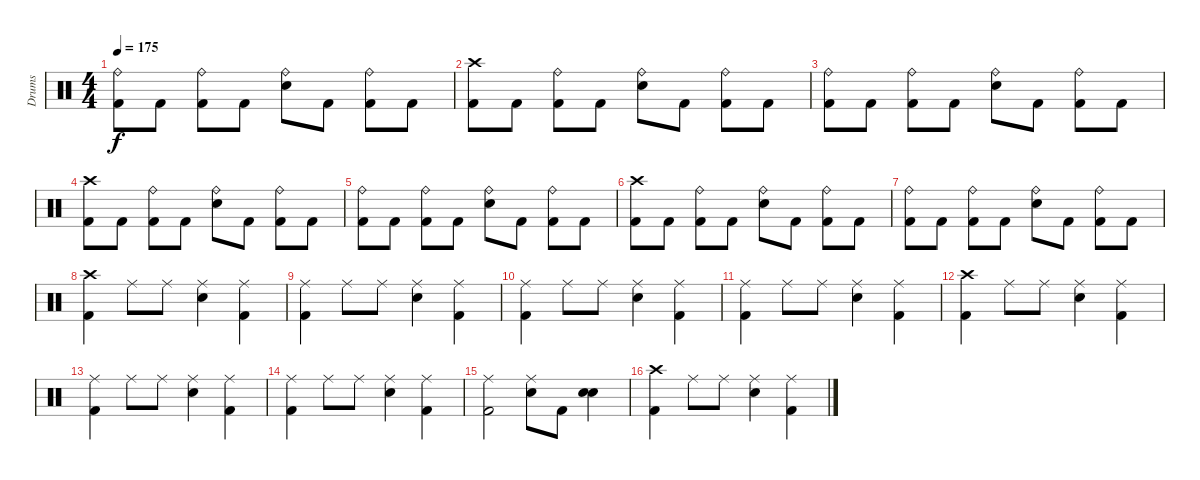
\track ("Drums" "Drums") {instrument percussion}
\staff {score}
\articulation defaults
\ts (4 4)
\tempo 175
\clef neutral
\ks c
("Ride (bell)" "Kick (hit) 2").8{dy f} "Kick (hit) 2".8 ("Ride (bell)" "Kick (hit) 2").8 "Kick (hit) 2".8 ("Ride (bell)" "Snare (hit) 2").8 "Kick (hit) 2".8 ("Ride (bell)" "Kick (hit) 2").8 "Kick (hit) 2".8 |
("Crash high (hit)" "Kick (hit) 2").8 "Kick (hit) 2".8 ("Ride (bell)" "Kick (hit) 2").8 "Kick (hit) 2".8 ("Ride (bell)" "Snare (hit) 2").8 "Kick (hit) 2".8 ("Ride (bell)" "Kick (hit) 2").8 "Kick (hit) 2".8 |
("Ride (bell)" "Kick (hit) 2").8 "Kick (hit) 2".8 ("Ride (bell)" "Kick (hit) 2").8 "Kick (hit) 2".8 ("Ride (bell)" "Snare (hit) 2").8 "Kick (hit) 2".8 ("Ride (bell)" "Kick (hit) 2").8 "Kick (hit) 2".8 |
("Crash high (hit)" "Kick (hit) 2").8 "Kick (hit) 2".8 ("Ride (bell)" "Kick (hit) 2").8 "Kick (hit) 2".8 ("Ride (bell)" "Snare (hit) 2").8 "Kick (hit) 2".8 ("Ride (bell)" "Kick (hit) 2").8 "Kick (hit) 2".8 |
("Ride (bell)" "Kick (hit) 2").8 "Kick (hit) 2".8 ("Ride (bell)" "Kick (hit) 2").8 "Kick (hit) 2".8 ("Ride (bell)" "Snare (hit) 2").8 "Kick (hit) 2".8 ("Ride (bell)" "Kick (hit) 2").8 "Kick (hit) 2".8 |
("Crash high (hit)" "Kick (hit) 2").8 "Kick (hit) 2".8 ("Ride (bell)" "Kick (hit) 2").8 "Kick (hit) 2".8 ("Ride (bell)" "Snare (hit) 2").8 "Kick (hit) 2".8 ("Ride (bell)" "Kick (hit) 2").8 "Kick (hit) 2".8 |
("Ride (bell)" "Kick (hit) 2").8 "Kick (hit) 2".8 ("Ride (bell)" "Kick (hit) 2").8 "Kick (hit) 2".8 ("Ride (bell)" "Snare (hit) 2").8 "Kick (hit) 2".8 ("Ride (bell)" "Kick (hit) 2").8 "Kick (hit) 2".8 |
("Crash high (hit)" "Kick (hit) 2").4 "Ride (middle)".8 "Ride (middle)".8 ("Ride (middle)" "Snare (hit) 2").4 ("Ride (middle)" "Kick (hit) 2").4 |
("Ride (middle)" "Kick (hit) 2").4 "Ride (middle)".8 "Ride (middle)".8 ("Ride (middle)" "Snare (hit) 2").4 ("Ride (middle)" "Kick (hit) 2").4 |
("Ride (middle)" "Kick (hit) 2").4 "Ride (middle)".8 "Ride (middle)".8 ("Ride (middle)" "Snare (hit) 2").4 ("Ride (middle)" "Kick (hit) 2").4 |
("Ride (middle)" "Kick (hit) 2").4 "Ride (middle)".8 "Ride (middle)".8 ("Ride (middle)" "Snare (hit) 2").4 ("Ride (middle)" "Kick (hit) 2").4 |
("Crash high (hit)" "Kick (hit) 2").4 "Ride (middle)".8 "Ride (middle)".8 ("Ride (middle)" "Snare (hit) 2").4 ("Ride (middle)" "Kick (hit) 2").4 |
("Ride (middle)" "Kick (hit) 2").4 "Ride (middle)".8 "Ride (middle)".8 ("Ride (middle)" "Snare (hit) 2").4 ("Ride (middle)" "Kick (hit) 2").4 |
("Ride (middle)" "Kick (hit) 2").4 "Ride (middle)".8 "Ride (middle)".8 ("Ride (middle)" "Snare (hit) 2").4 ("Ride (middle)" "Kick (hit) 2").4 |
("Ride (middle)" "Kick (hit) 2").2 ("Ride (middle)" "Snare (hit) 2").8 "Kick (hit) 2".8 ("Snare (hit)" "Snare (hit) 2").4 |
("Crash high (hit)" "Kick (hit) 2").4 "Ride (middle)".8 "Ride (middle)".8 ("Ride (middle)" "Snare (hit) 2").4 ("Ride (middle)" "Kick (hit) 2").4
